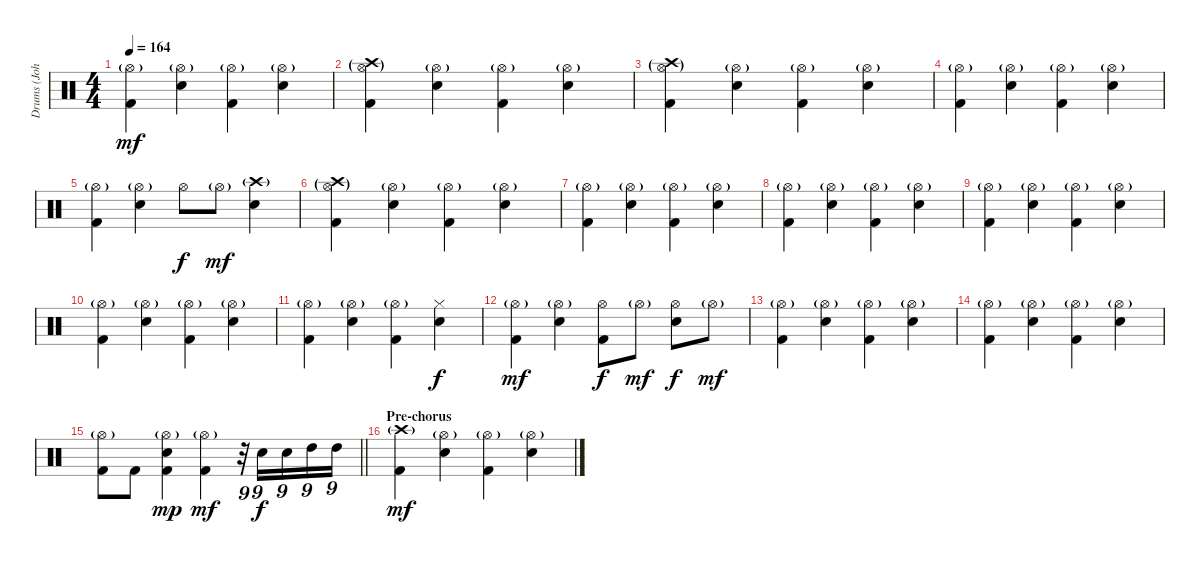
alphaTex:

\track ("Drums (John O'Reilly)" "Drums (Joh") {instrument percussion}
\staff {score}
\articulation defaults
\ts (4 4)
\tempo 164
\clef neutral
\ks c
("Hi-Hat (open)"{g} "Kick (hit) 2").4{dy mf} ("Hi-Hat (open)"{g} "Electric Snare (hit)").4 ("Hi-Hat (open)"{g} "Kick (hit) 2").4 ("Hi-Hat (open)"{g} "Electric Snare (hit)").4 |
("Crash high (hit)"{g} "Hi-Hat (open)"{g} "Kick (hit) 2").4 ("Hi-Hat (open)"{g} "Electric Snare (hit)").4 ("Hi-Hat (open)"{g} "Kick (hit) 2").4 ("Hi-Hat (open)"{g} "Electric Snare (hit)").4 |
("Crash high (hit)"{g} "Hi-Hat (open)"{g} "Kick (hit) 2").4 ("Hi-Hat (open)"{g} "Electric Snare (hit)").4 ("Hi-Hat (open)"{g} "Kick (hit) 2").4 ("Hi-Hat (open)"{g} "Electric Snare (hit)").4 |
("Hi-Hat (open)"{g} "Kick (hit) 2").4 ("Hi-Hat (open)"{g} "Electric Snare (hit)").4 ("Hi-Hat (open)"{g} "Kick (hit) 2").4 ("Hi-Hat (open)"{g} "Electric Snare (hit)").4 |
("Hi-Hat (open)"{g} "Kick (hit) 2").4 ("Hi-Hat (open)"{g} "Electric Snare (hit)").4 "Hi-Hat (open)".8{dy f} "Hi-Hat (open)"{g}.8{dy mf} ("Crash high (hit)"{g} "Electric Snare (hit)").4 |
("Crash high (hit)"{g} "Hi-Hat (open)"{g} "Kick (hit) 2").4 ("Hi-Hat (open)"{g} "Electric Snare (hit)").4 ("Hi-Hat (open)"{g} "Kick (hit) 2").4 ("Hi-Hat (open)"{g} "Electric Snare (hit)").4 |
("Hi-Hat (open)"{g} "Kick (hit) 2").4 ("Hi-Hat (open)"{g} "Electric Snare (hit)").4 ("Hi-Hat (open)"{g} "Kick (hit) 2").4 ("Hi-Hat (open)"{g} "Electric Snare (hit)").4 |
("Hi-Hat (open)"{g} "Kick (hit) 2").4 ("Hi-Hat (open)"{g} "Electric Snare (hit)").4 ("Hi-Hat (open)"{g} "Kick (hit) 2").4 ("Hi-Hat (open)"{g} "Electric Snare (hit)").4 |
("Hi-Hat (open)"{g} "Kick (hit) 2").4 ("Hi-Hat (open)"{g} "Electric Snare (hit)").4 ("Hi-Hat (open)"{g} "Kick (hit) 2").4 ("Hi-Hat (open)"{g} "Electric Snare (hit)").4 |
("Hi-Hat (open)"{g} "Kick (hit) 2").4 ("Hi-Hat (open)"{g} "Electric Snare (hit)").4 ("Hi-Hat (open)"{g} "Kick (hit) 2").4 ("Hi-Hat (open)"{g} "Electric Snare (hit)").4 |
("Hi-Hat (open)"{g} "Kick (hit) 2").4 ("Hi-Hat (open)"{g} "Electric Snare (hit)").4 ("Hi-Hat (open)"{g} "Kick (hit) 2").4 ("Hi-Hat (closed)" "Electric Snare (hit)").4{dy f} |
("Hi-Hat (open)"{g} "Kick (hit) 2").4{dy mf} ("Hi-Hat (open)"{g} "Electric Snare (hit)").4 ("Hi-Hat (open)" "Kick (hit) 2").8{dy f} "Hi-Hat (open)"{g}.8{dy mf} ("Hi-Hat (open)" "Electric Snare (hit)").8{dy f} "Hi-Hat (open)"{g}.8{dy mf} |
("Hi-Hat (open)"{g} "Kick (hit) 2").4 ("Hi-Hat (open)"{g} "Electric Snare (hit)").4 ("Hi-Hat (open)"{g} "Kick (hit) 2").4 ("Hi-Hat (open)"{g} "Electric Snare (hit)").4 |
("Hi-Hat (open)"{g} "Kick (hit) 2").4 ("Hi-Hat (open)"{g} "Electric Snare (hit)").4 ("Hi-Hat (open)"{g} "Kick (hit) 2").4 ("Hi-Hat (open)"{g} "Electric Snare (hit)").4 |
\barLineRight lightlight
("Hi-Hat (open)"{g} "Kick (hit) 2").8 "Kick (hit) 2".8 ("Hi-Hat (open)"{g} "Electric Snare (hit)" "Kick (hit) 2").4{dy mp} ("Hi-Hat (open)"{g} "Kick (hit) 2").4{dy mf} r.32{tu (9 8)} "Electric Snare (hit)".16{tu (9 8) dy f} "Electric Snare (hit)".16{tu (9 8)} "High Tom (hit)".16{tu (9 8)} "High Tom (hit)".16{tu (9 8)} |
\section ("" "Pre-chorus")
("Crash high (hit)"{g} "Kick (hit) 2").4{dy mf} ("Hi-Hat (open)"{g} "Electric Snare (hit)").4 ("Hi-Hat (open)"{g} "Kick (hit) 2").4 ("Hi-Hat (open)"{g} "Electric Snare (hit)").4
